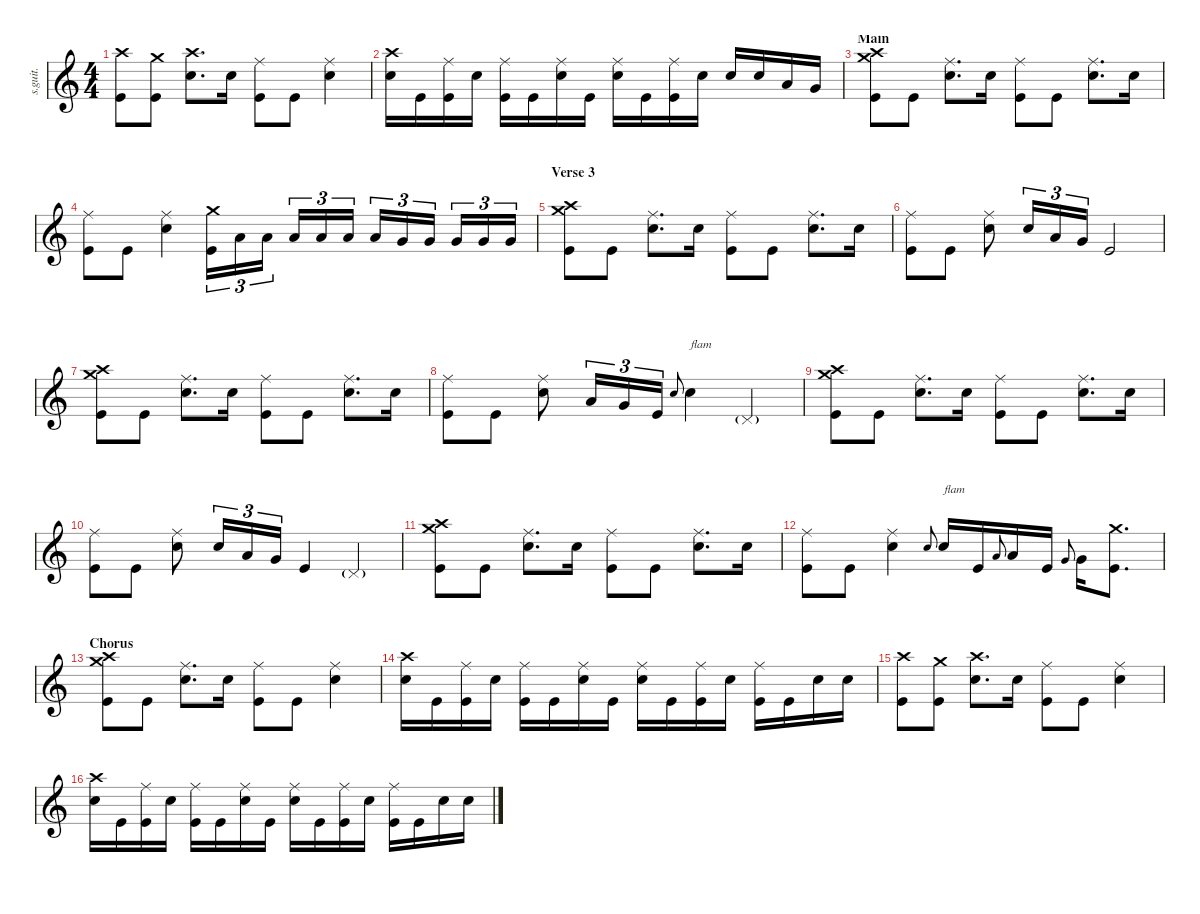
\defaultSystemsLayout 4
\hideDynamics
\bracketExtendMode nobrackets
\track ("Dave Grohl" "s.guit.") {instrument percussion}
\staff {score}
\articulation defaults
\ts (4 4)
\tempo (105 hide)
\clef g2
\ks c
("Crash high (hit)" "Kick (hit)").8{lyrics (0 "") lyrics (1 "") lyrics (2 "") lyrics (3 "") lyrics (4 "") dy f} ("Kick (hit)" "Crash medium (hit)").8{lyrics (0 "") lyrics (1 "") lyrics (2 "") lyrics (3 "") lyrics (4 "")} ("Snare (hit) 2" "Crash high (hit)").8{d lyrics (0 "") lyrics (1 "") lyrics (2 "") lyrics (3 "") lyrics (4 "")} "Snare (hit) 2".16{lyrics (0 "") lyrics (1 "") lyrics (2 "") lyrics (3 "") lyrics (4 "")} ("Ride (middle)" "Kick (hit)").8{lyrics (0 "") lyrics (1 "") lyrics (2 "") lyrics (3 "") lyrics (4 "")} "Kick (hit)".8{lyrics (0 "") lyrics (1 "") lyrics (2 "") lyrics (3 "") lyrics (4 "")} ("Ride (middle)" "Snare (hit) 2").4{lyrics (0 "") lyrics (1 "") lyrics (2 "") lyrics (3 "") lyrics (4 "")} |
("Crash high (hit)" "Snare (hit) 2").16{lyrics (0 "") lyrics (1 "") lyrics (2 "") lyrics (3 "") lyrics (4 "")} "Kick (hit)".16{lyrics (0 "") lyrics (1 "") lyrics (2 "") lyrics (3 "") lyrics (4 "")} ("Ride (middle)" "Kick (hit)").16{lyrics (0 "") lyrics (1 "") lyrics (2 "") lyrics (3 "") lyrics (4 "")} "Snare (hit) 2".16{lyrics (0 "") lyrics (1 "") lyrics (2 "") lyrics (3 "") lyrics (4 "")} ("Ride (middle)" "Kick (hit)").16{lyrics (0 "") lyrics (1 "") lyrics (2 "") lyrics (3 "") lyrics (4 "")} "Kick (hit)".16{lyrics (0 "") lyrics (1 "") lyrics (2 "") lyrics (3 "") lyrics (4 "")} ("Ride (middle)" "Snare (hit) 2").16{lyrics (0 "") lyrics (1 "") lyrics (2 "") lyrics (3 "") lyrics (4 "")} "Kick (hit)".16{lyrics (0 "") lyrics (1 "") lyrics (2 "") lyrics (3 "") lyrics (4 "")} ("Ride (middle)" "Snare (hit) 2").16{lyrics (0 "") lyrics (1 "") lyrics (2 "") lyrics (3 "") lyrics (4 "")} "Kick (hit)".16{lyrics (0 "") lyrics (1 "") lyrics (2 "") lyrics (3 "") lyrics (4 "")} ("Ride (middle)" "Kick (hit)").16{lyrics (0 "") lyrics (1 "") lyrics (2 "") lyrics (3 "") lyrics (4 "")} "Snare (hit) 2".16{lyrics (0 "") lyrics (1 "") lyrics (2 "") lyrics (3 "") lyrics (4 "")} "Snare (hit) 2".16{lyrics (0 "") lyrics (1 "") lyrics (2 "") lyrics (3 "") lyrics (4 "")} "Snare (hit) 2".16{lyrics (0 "") lyrics (1 "") lyrics (2 "") lyrics (3 "") lyrics (4 "")} "Low Floor Tom (hit)".16{lyrics (0 "") lyrics (1 "") lyrics (2 "") lyrics (3 "") lyrics (4 "")} "Very Low Tom (hit)".16{lyrics (0 "") lyrics (1 "") lyrics (2 "") lyrics (3 "") lyrics (4 "")} |
\section ("" "Main")
("Crash high (hit)" "Crash medium (hit)" "Kick (hit)").8{lyrics (0 "") lyrics (1 "") lyrics (2 "") lyrics (3 "") lyrics (4 "") dy mf} "Kick (hit)".8{lyrics (0 "") lyrics (1 "") lyrics (2 "") lyrics (3 "") lyrics (4 "") dy f} ("Ride (middle)" "Snare (hit) 2").8{d lyrics (0 "") lyrics (1 "") lyrics (2 "") lyrics (3 "") lyrics (4 "")} "Snare (hit) 2".16{lyrics (0 "") lyrics (1 "") lyrics (2 "") lyrics (3 "") lyrics (4 "")} ("Kick (hit)" "Ride (middle)").8{lyrics (0 "") lyrics (1 "") lyrics (2 "") lyrics (3 "") lyrics (4 "") dy mf} "Kick (hit)".8{lyrics (0 "") lyrics (1 "") lyrics (2 "") lyrics (3 "") lyrics (4 "") dy f} ("Ride (middle)" "Snare (hit) 2").8{d lyrics (0 "") lyrics (1 "") lyrics (2 "") lyrics (3 "") lyrics (4 "")} "Snare (hit) 2".16{lyrics (0 "") lyrics (1 "") lyrics (2 "") lyrics (3 "") lyrics (4 "")} |
("Kick (hit)" "Ride (middle)").8{lyrics (0 "") lyrics (1 "") lyrics (2 "") lyrics (3 "") lyrics (4 "") dy mf} "Kick (hit)".8{lyrics (0 "") lyrics (1 "") lyrics (2 "") lyrics (3 "") lyrics (4 "") dy f} ("Snare (hit) 2" "Ride (middle)").4{lyrics (0 "") lyrics (1 "") lyrics (2 "") lyrics (3 "") lyrics (4 "")} ("Crash medium (hit)" "Kick (hit)").16{tu (3 2) lyrics (0 "") lyrics (1 "") lyrics (2 "") lyrics (3 "") lyrics (4 "")} "Low Floor Tom (hit)".16{tu (3 2) lyrics (0 "") lyrics (1 "") lyrics (2 "") lyrics (3 "") lyrics (4 "") dy p} "Low Floor Tom (hit)".16{tu (3 2) lyrics (0 "") lyrics (1 "") lyrics (2 "") lyrics (3 "") lyrics (4 "")} "Low Floor Tom (hit)".16{tu (3 2) lyrics (0 "") lyrics (1 "") lyrics (2 "") lyrics (3 "") lyrics (4 "") dy mp} "Low Floor Tom (hit)".16{tu (3 2) lyrics (0 "") lyrics (1 "") lyrics (2 "") lyrics (3 "") lyrics (4 "")} "Low Floor Tom (hit)".16{tu (3 2) lyrics (0 "") lyrics (1 "") lyrics (2 "") lyrics (3 "") lyrics (4 "") dy mf} "Low Floor Tom (hit)".16{tu (3 2) lyrics (0 "") lyrics (1 "") lyrics (2 "") lyrics (3 "") lyrics (4 "") dy f} "Very Low Tom (hit)".16{tu (3 2) lyrics (0 "") lyrics (1 "") lyrics (2 "") lyrics (3 "") lyrics (4 "") dy mp} "Very Low Tom (hit)".16{tu (3 2) lyrics (0 "") lyrics (1 "") lyrics (2 "") lyrics (3 "") lyrics (4 "") dy mf} "Very Low Tom (hit)".16{tu (3 2) lyrics (0 "") lyrics (1 "") lyrics (2 "") lyrics (3 "") lyrics (4 "") dy f} "Very Low Tom (hit)".16{tu (3 2) lyrics (0 "") lyrics (1 "") lyrics (2 "") lyrics (3 "") lyrics (4 "")} "Very Low Tom (hit)".16{tu (3 2) lyrics (0 "") lyrics (1 "") lyrics (2 "") lyrics (3 "") lyrics (4 "")} |
\section ("" "Verse 3")
("Crash high (hit)" "Crash medium (hit)" "Kick (hit)").8{lyrics (0 "") lyrics (1 "") lyrics (2 "") lyrics (3 "") lyrics (4 "") dy mf} "Kick (hit)".8{lyrics (0 "") lyrics (1 "") lyrics (2 "") lyrics (3 "") lyrics (4 "") dy f} ("Ride (middle)" "Snare (hit) 2").8{d lyrics (0 "") lyrics (1 "") lyrics (2 "") lyrics (3 "") lyrics (4 "")} "Snare (hit) 2".16{lyrics (0 "") lyrics (1 "") lyrics (2 "") lyrics (3 "") lyrics (4 "")} ("Ride (middle)" "Kick (hit)").8{lyrics (0 "") lyrics (1 "") lyrics (2 "") lyrics (3 "") lyrics (4 "") dy mf} "Kick (hit)".8{lyrics (0 "") lyrics (1 "") lyrics (2 "") lyrics (3 "") lyrics (4 "") dy f} ("Ride (middle)" "Snare (hit) 2").8{d lyrics (0 "") lyrics (1 "") lyrics (2 "") lyrics (3 "") lyrics (4 "")} "Snare (hit) 2".16{lyrics (0 "") lyrics (1 "") lyrics (2 "") lyrics (3 "") lyrics (4 "")} |
("Ride (middle)" "Kick (hit)").8{lyrics (0 "") lyrics (1 "") lyrics (2 "") lyrics (3 "") lyrics (4 "") dy mf} "Kick (hit)".8{lyrics (0 "") lyrics (1 "") lyrics (2 "") lyrics (3 "") lyrics (4 "") dy f} ("Ride (middle)" "Snare (hit) 2").8{lyrics (0 "") lyrics (1 "") lyrics (2 "") lyrics (3 "") lyrics (4 "")} "Snare (hit) 2".16{tu (3 2) lyrics (0 "") lyrics (1 "") lyrics (2 "") lyrics (3 "") lyrics (4 "")} "Low Floor Tom (hit)".16{tu (3 2) lyrics (0 "") lyrics (1 "") lyrics (2 "") lyrics (3 "") lyrics (4 "")} "Very Low Tom (hit)".16{tu (3 2) lyrics (0 "") lyrics (1 "") lyrics (2 "") lyrics (3 "") lyrics (4 "")} "Kick (hit)".2{lyrics (0 "") lyrics (1 "") lyrics (2 "") lyrics (3 "") lyrics (4 "")} |
("Crash high (hit)" "Crash medium (hit)" "Kick (hit)").8{lyrics (0 "") lyrics (1 "") lyrics (2 "") lyrics (3 "") lyrics (4 "") dy mf} "Kick (hit)".8{lyrics (0 "") lyrics (1 "") lyrics (2 "") lyrics (3 "") lyrics (4 "") dy f} ("Ride (middle)" "Snare (hit) 2").8{d lyrics (0 "") lyrics (1 "") lyrics (2 "") lyrics (3 "") lyrics (4 "")} "Snare (hit) 2".16{lyrics (0 "") lyrics (1 "") lyrics (2 "") lyrics (3 "") lyrics (4 "")} ("Ride (middle)" "Kick (hit)").8{lyrics (0 "") lyrics (1 "") lyrics (2 "") lyrics (3 "") lyrics (4 "")} "Kick (hit)".8{lyrics (0 "") lyrics (1 "") lyrics (2 "") lyrics (3 "") lyrics (4 "")} ("Ride (middle)" "Snare (hit) 2").8{d lyrics (0 "") lyrics (1 "") lyrics (2 "") lyrics (3 "") lyrics (4 "")} "Snare (hit) 2".16{lyrics (0 "") lyrics (1 "") lyrics (2 "") lyrics (3 "") lyrics (4 "")} |
("Ride (middle)" "Kick (hit)").8{lyrics (0 "") lyrics (1 "") lyrics (2 "") lyrics (3 "") lyrics (4 "")} "Kick (hit)".8{lyrics (0 "") lyrics (1 "") lyrics (2 "") lyrics (3 "") lyrics (4 "")} ("Ride (middle)" "Snare (hit) 2").8{lyrics (0 "") lyrics (1 "") lyrics (2 "") lyrics (3 "") lyrics (4 "")} "Low Floor Tom (hit)".16{tu (3 2) lyrics (0 "") lyrics (1 "") lyrics (2 "") lyrics (3 "") lyrics (4 "")} "Very Low Tom (hit)".16{tu (3 2) lyrics (0 "") lyrics (1 "") lyrics (2 "") lyrics (3 "") lyrics (4 "")} "Kick (hit)".16{tu (3 2) lyrics (0 "") lyrics (1 "") lyrics (2 "") lyrics (3 "") lyrics (4 "")} "Snare (hit) 2".8{lyrics (0 "") lyrics (1 "") lyrics (2 "") lyrics (3 "") lyrics (4 "") gr onbeat} "Snare (hit) 2".4{txt "flam" lyrics (0 "") lyrics (1 "") lyrics (2 "") lyrics (3 "") lyrics (4 "")} "Pedal Hi-Hat (hit)"{g}.4{lyrics (0 "") lyrics (1 "") lyrics (2 "") lyrics (3 "") lyrics (4 "")} |
("Crash high (hit)" "Crash medium (hit)" "Kick (hit)").8{lyrics (0 "") lyrics (1 "") lyrics (2 "") lyrics (3 "") lyrics (4 "") dy mf} "Kick (hit)".8{lyrics (0 "") lyrics (1 "") lyrics (2 "") lyrics (3 "") lyrics (4 "") dy f} ("Ride (middle)" "Snare (hit) 2").8{d lyrics (0 "") lyrics (1 "") lyrics (2 "") lyrics (3 "") lyrics (4 "")} "Snare (hit) 2".16{lyrics (0 "") lyrics (1 "") lyrics (2 "") lyrics (3 "") lyrics (4 "")} ("Ride (middle)" "Kick (hit)").8{lyrics (0 "") lyrics (1 "") lyrics (2 "") lyrics (3 "") lyrics (4 "") dy mf} "Kick (hit)".8{lyrics (0 "") lyrics (1 "") lyrics (2 "") lyrics (3 "") lyrics (4 "") dy f} ("Ride (middle)" "Snare (hit) 2").8{d lyrics (0 "") lyrics (1 "") lyrics (2 "") lyrics (3 "") lyrics (4 "")} "Snare (hit) 2".16{lyrics (0 "") lyrics (1 "") lyrics (2 "") lyrics (3 "") lyrics (4 "")} |
("Ride (middle)" "Kick (hit)").8{lyrics (0 "") lyrics (1 "") lyrics (2 "") lyrics (3 "") lyrics (4 "") dy mf} "Kick (hit)".8{lyrics (0 "") lyrics (1 "") lyrics (2 "") lyrics (3 "") lyrics (4 "") dy f} ("Ride (middle)" "Snare (hit) 2").8{lyrics (0 "") lyrics (1 "") lyrics (2 "") lyrics (3 "") lyrics (4 "")} "Snare (hit) 2".16{tu (3 2) lyrics (0 "") lyrics (1 "") lyrics (2 "") lyrics (3 "") lyrics (4 "")} "Low Floor Tom (hit)".16{tu (3 2) lyrics (0 "") lyrics (1 "") lyrics (2 "") lyrics (3 "") lyrics (4 "")} "Very Low Tom (hit)".16{tu (3 2) lyrics (0 "") lyrics (1 "") lyrics (2 "") lyrics (3 "") lyrics (4 "")} "Kick (hit)".4{lyrics (0 "") lyrics (1 "") lyrics (2 "") lyrics (3 "") lyrics (4 "")} "Pedal Hi-Hat (hit)"{g}.4{lyrics (0 "") lyrics (1 "") lyrics (2 "") lyrics (3 "") lyrics (4 "")} |
("Crash high (hit)" "Crash medium (hit)" "Kick (hit)").8{lyrics (0 "") lyrics (1 "") lyrics (2 "") lyrics (3 "") lyrics (4 "") dy mf} "Kick (hit)".8{lyrics (0 "") lyrics (1 "") lyrics (2 "") lyrics (3 "") lyrics (4 "") dy f} ("Ride (middle)" "Snare (hit) 2").8{d lyrics (0 "") lyrics (1 "") lyrics (2 "") lyrics (3 "") lyrics (4 "")} "Snare (hit) 2".16{lyrics (0 "") lyrics (1 "") lyrics (2 "") lyrics (3 "") lyrics (4 "")} ("Ride (middle)" "Kick (hit)").8{lyrics (0 "") lyrics (1 "") lyrics (2 "") lyrics (3 "") lyrics (4 "") dy mf} "Kick (hit)".8{lyrics (0 "") lyrics (1 "") lyrics (2 "") lyrics (3 "") lyrics (4 "") dy f} ("Ride (middle)" "Snare (hit) 2").8{d lyrics (0 "") lyrics (1 "") lyrics (2 "") lyrics (3 "") lyrics (4 "")} "Snare (hit) 2".16{lyrics (0 "") lyrics (1 "") lyrics (2 "") lyrics (3 "") lyrics (4 "")} |
("Ride (middle)" "Kick (hit)").8{lyrics (0 "") lyrics (1 "") lyrics (2 "") lyrics (3 "") lyrics (4 "")} "Kick (hit)".8{lyrics (0 "") lyrics (1 "") lyrics (2 "") lyrics (3 "") lyrics (4 "")} ("Ride (middle)" "Snare (hit) 2").4{lyrics (0 "") lyrics (1 "") lyrics (2 "") lyrics (3 "") lyrics (4 "")} "Snare (hit) 2".8{lyrics (0 "") lyrics (1 "") lyrics (2 "") lyrics (3 "") lyrics (4 "") gr onbeat} "Snare (hit) 2".16{txt "flam" lyrics (0 "") lyrics (1 "") lyrics (2 "") lyrics (3 "") lyrics (4 "")} "Kick (hit)".16{lyrics (0 "") lyrics (1 "") lyrics (2 "") lyrics (3 "") lyrics (4 "")} "Low Floor Tom (hit)".8{lyrics (0 "") lyrics (1 "") lyrics (2 "") lyrics (3 "") lyrics (4 "") gr onbeat} "Low Floor Tom (hit)".16{lyrics (0 "") lyrics (1 "") lyrics (2 "") lyrics (3 "") lyrics (4 "")} "Kick (hit)".16{lyrics (0 "") lyrics (1 "") lyrics (2 "") lyrics (3 "") lyrics (4 "")} "Very Low Tom (hit)".8{lyrics (0 "") lyrics (1 "") lyrics (2 "") lyrics (3 "") lyrics (4 "") gr onbeat} "Very Low Tom (hit)".16{lyrics (0 "") lyrics (1 "") lyrics (2 "") lyrics (3 "") lyrics (4 "")} ("Crash medium (hit)" "Kick (hit)").8{d lyrics (0 "") lyrics (1 "") lyrics (2 "") lyrics (3 "") lyrics (4 "") dy mf} |
\section ("" "Chorus")
("Crash high (hit)" "Crash medium (hit)" "Kick (hit)").8{lyrics (0 "") lyrics (1 "") lyrics (2 "") lyrics (3 "") lyrics (4 "") dy f} "Kick (hit)".8{lyrics (0 "") lyrics (1 "") lyrics (2 "") lyrics (3 "") lyrics (4 "")} ("Ride (middle)" "Snare (hit) 2").8{d lyrics (0 "") lyrics (1 "") lyrics (2 "") lyrics (3 "") lyrics (4 "")} "Snare (hit) 2".16{lyrics (0 "") lyrics (1 "") lyrics (2 "") lyrics (3 "") lyrics (4 "")} ("Ride (middle)" "Kick (hit)").8{lyrics (0 "") lyrics (1 "") lyrics (2 "") lyrics (3 "") lyrics (4 "")} "Kick (hit)".8{lyrics (0 "") lyrics (1 "") lyrics (2 "") lyrics (3 "") lyrics (4 "")} ("Ride (middle)" "Snare (hit) 2").4{lyrics (0 "") lyrics (1 "") lyrics (2 "") lyrics (3 "") lyrics (4 "")} |
("Crash high (hit)" "Snare (hit) 2").16{lyrics (0 "") lyrics (1 "") lyrics (2 "") lyrics (3 "") lyrics (4 "")} "Kick (hit)".16{lyrics (0 "") lyrics (1 "") lyrics (2 "") lyrics (3 "") lyrics (4 "")} ("Ride (middle)" "Kick (hit)").16{lyrics (0 "") lyrics (1 "") lyrics (2 "") lyrics (3 "") lyrics (4 "")} "Snare (hit) 2".16{lyrics (0 "") lyrics (1 "") lyrics (2 "") lyrics (3 "") lyrics (4 "")} ("Ride (middle)" "Kick (hit)").16{lyrics (0 "") lyrics (1 "") lyrics (2 "") lyrics (3 "") lyrics (4 "")} "Kick (hit)".16{lyrics (0 "") lyrics (1 "") lyrics (2 "") lyrics (3 "") lyrics (4 "")} ("Ride (middle)" "Snare (hit) 2").16{lyrics (0 "") lyrics (1 "") lyrics (2 "") lyrics (3 "") lyrics (4 "")} "Kick (hit)".16{lyrics (0 "") lyrics (1 "") lyrics (2 "") lyrics (3 "") lyrics (4 "")} ("Ride (middle)" "Snare (hit) 2").16{lyrics (0 "") lyrics (1 "") lyrics (2 "") lyrics (3 "") lyrics (4 "")} "Kick (hit)".16{lyrics (0 "") lyrics (1 "") lyrics (2 "") lyrics (3 "") lyrics (4 "")} ("Ride (middle)" "Kick (hit)").16{lyrics (0 "") lyrics (1 "") lyrics (2 "") lyrics (3 "") lyrics (4 "")} "Snare (hit) 2".16{lyrics (0 "") lyrics (1 "") lyrics (2 "") lyrics (3 "") lyrics (4 "")} ("Ride (middle)" "Kick (hit)").16{lyrics (0 "") lyrics (1 "") lyrics (2 "") lyrics (3 "") lyrics (4 "")} "Kick (hit)".16{lyrics (0 "") lyrics (1 "") lyrics (2 "") lyrics (3 "") lyrics (4 "")} "Snare (hit) 2".16{lyrics (0 "") lyrics (1 "") lyrics (2 "") lyrics (3 "") lyrics (4 "")} "Snare (hit) 2".16{lyrics (0 "") lyrics (1 "") lyrics (2 "") lyrics (3 "") lyrics (4 "")} |
("Crash high (hit)" "Kick (hit)").8{lyrics (0 "") lyrics (1 "") lyrics (2 "") lyrics (3 "") lyrics (4 "")} ("Kick (hit)" "Crash medium (hit)").8{lyrics (0 "") lyrics (1 "") lyrics (2 "") lyrics (3 "") lyrics (4 "")} ("Snare (hit) 2" "Crash high (hit)").8{d lyrics (0 "") lyrics (1 "") lyrics (2 "") lyrics (3 "") lyrics (4 "")} "Snare (hit) 2".16{lyrics (0 "") lyrics (1 "") lyrics (2 "") lyrics (3 "") lyrics (4 "")} ("Ride (middle)" "Kick (hit)").8{lyrics (0 "") lyrics (1 "") lyrics (2 "") lyrics (3 "") lyrics (4 "")} "Kick (hit)".8{lyrics (0 "") lyrics (1 "") lyrics (2 "") lyrics (3 "") lyrics (4 "")} ("Ride (middle)" "Snare (hit) 2").4{lyrics (0 "") lyrics (1 "") lyrics (2 "") lyrics (3 "") lyrics (4 "")} |
("Crash high (hit)" "Snare (hit) 2").16{lyrics (0 "") lyrics (1 "") lyrics (2 "") lyrics (3 "") lyrics (4 "")} "Kick (hit)".16{lyrics (0 "") lyrics (1 "") lyrics (2 "") lyrics (3 "") lyrics (4 "")} ("Ride (middle)" "Kick (hit)").16{lyrics (0 "") lyrics (1 "") lyrics (2 "") lyrics (3 "") lyrics (4 "")} "Snare (hit) 2".16{lyrics (0 "") lyrics (1 "") lyrics (2 "") lyrics (3 "") lyrics (4 "")} ("Ride (middle)" "Kick (hit)").16{lyrics (0 "") lyrics (1 "") lyrics (2 "") lyrics (3 "") lyrics (4 "")} "Kick (hit)".16{lyrics (0 "") lyrics (1 "") lyrics (2 "") lyrics (3 "") lyrics (4 "")} ("Ride (middle)" "Snare (hit) 2").16{lyrics (0 "") lyrics (1 "") lyrics (2 "") lyrics (3 "") lyrics (4 "")} "Kick (hit)".16{lyrics (0 "") lyrics (1 "") lyrics (2 "") lyrics (3 "") lyrics (4 "")} ("Ride (middle)" "Snare (hit) 2").16{lyrics (0 "") lyrics (1 "") lyrics (2 "") lyrics (3 "") lyrics (4 "")} "Kick (hit)".16{lyrics (0 "") lyrics (1 "") lyrics (2 "") lyrics (3 "") lyrics (4 "")} ("Ride (middle)" "Kick (hit)").16{lyrics (0 "") lyrics (1 "") lyrics (2 "") lyrics (3 "") lyrics (4 "")} "Snare (hit) 2".16{lyrics (0 "") lyrics (1 "") lyrics (2 "") lyrics (3 "") lyrics (4 "")} ("Ride (middle)" "Kick (hit)").16{lyrics (0 "") lyrics (1 "") lyrics (2 "") lyrics (3 "") lyrics (4 "")} "Kick (hit)".16{lyrics (0 "") lyrics (1 "") lyrics (2 "") lyrics (3 "") lyrics (4 "")} "Snare (hit) 2".16{lyrics (0 "") lyrics (1 "") lyrics (2 "") lyrics (3 "") lyrics (4 "")} "Snare (hit) 2".16{lyrics (0 "") lyrics (1 "") lyrics (2 "") lyrics (3 "") lyrics (4 "")}
